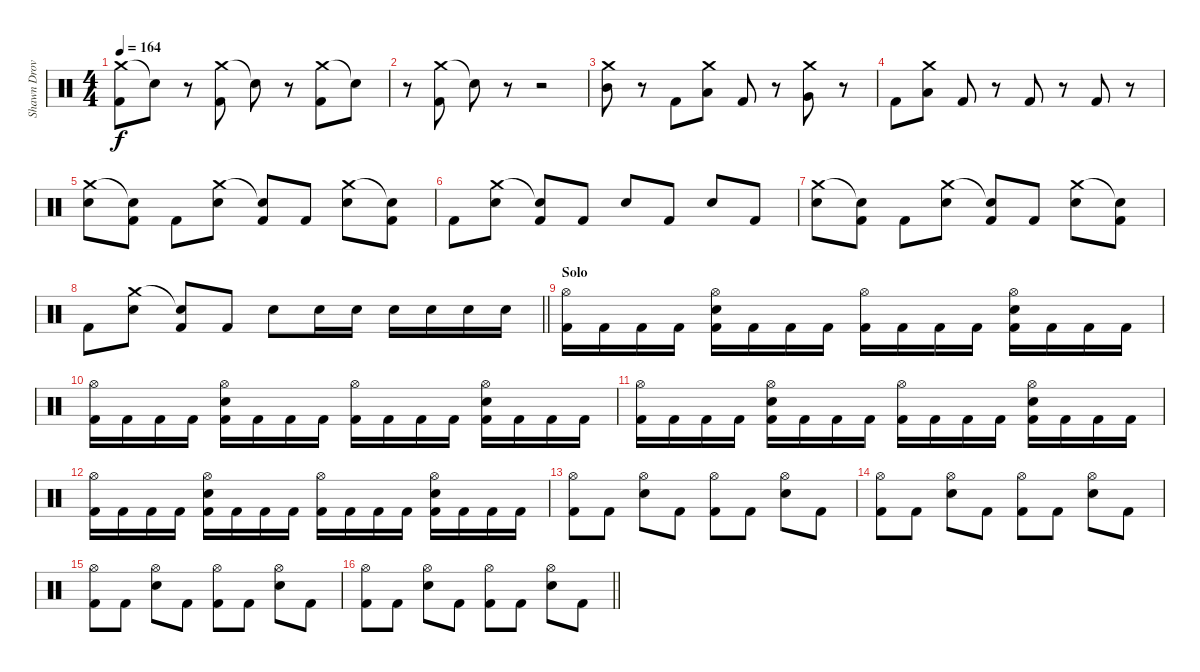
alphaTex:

\track ("Shawn Drover" "Shawn Drov") {instrument percussion}
\staff {score}
\articulation defaults
\ts (4 4)
\tempo 164
\clef neutral
\ks c
("Crash medium (hit)" "Kick (hit) 2").8{dy f} "Snare (hit)"{t}.8 r.8 ("Crash medium (hit)" "Kick (hit) 2").8 "Snare (hit)"{t}.8 r.8 ("Crash medium (hit)" "Kick (hit) 2").8 "Snare (hit)"{t}.8 |
r.8 ("Crash medium (hit)" "Kick (hit) 2").8 "Snare (hit)"{t}.8 r.8 r.2 |
("Crash medium (hit)" "Mid Tom (hit)").8 r.8 "Kick (hit) 2".8 ("Crash medium (hit)" "Low Tom (hit)").8 "Kick (hit) 2".8 r.8 ("Crash medium (hit)" "Very Low Tom (hit)").8 r.8 |
"Kick (hit) 2".8 ("Crash medium (hit)" "Low Floor Tom (hit)").8 "Kick (hit) 2".8 r.8 "Kick (hit) 2".8 r.8 "Kick (hit) 2".8 r.8 |
("Crash medium (hit)" "Snare (hit) 2").8 ("Snare (hit)"{t} "Kick (hit) 2").8 "Kick (hit) 2".8 ("Crash medium (hit)" "Snare (hit) 2").8 ("Snare (hit)"{t} "Kick (hit) 2").8 "Kick (hit) 2".8 ("Crash medium (hit)" "Snare (hit) 2").8 ("Snare (hit)"{t} "Kick (hit) 2").8 |
"Kick (hit) 2".8 ("Crash medium (hit)" "Snare (hit) 2").8 ("Snare (hit)"{t} "Kick (hit) 2").8 "Kick (hit) 2".8 "Snare (hit) 2".8 "Kick (hit) 2".8 "Snare (hit) 2".8 "Kick (hit) 2".8 |
("Crash medium (hit)" "Snare (hit) 2").8 ("Snare (hit)"{t} "Kick (hit) 2").8 "Kick (hit) 2".8 ("Crash medium (hit)" "Snare (hit) 2").8 ("Snare (hit)"{t} "Kick (hit) 2").8 "Kick (hit) 2".8 ("Crash medium (hit)" "Snare (hit) 2").8 ("Snare (hit)"{t} "Kick (hit) 2").8 |
\barLineRight lightlight "Kick (hit) 2".8
("Crash medium (hit)" "Snare (hit) 2").8 ("Snare (hit)"{t} "Kick (hit) 2").8 "Kick (hit) 2".8 "Snare (hit) 2".8 "Snare (hit) 2".16 "Snare (hit) 2".16 "Snare (hit) 2".16 "Snare (hit) 2".16 "Snare (hit) 2".16 "Snare (hit) 2".16 |
\section ("" "Solo")
("Hi-Hat (open)" "Kick (hit) 2").16 "Kick (hit) 2".16 "Kick (hit) 2".16 "Kick (hit) 2".16 ("Hi-Hat (open)" "Snare (hit) 2" "Kick (hit) 2").16 "Kick (hit) 2".16 "Kick (hit) 2".16 "Kick (hit) 2".16 ("Hi-Hat (open)" "Kick (hit) 2").16 "Kick (hit) 2".16 "Kick (hit) 2".16 "Kick (hit) 2".16 ("Hi-Hat (open)" "Snare (hit) 2" "Kick (hit) 2").16 "Kick (hit) 2".16 "Kick (hit) 2".16 "Kick (hit) 2".16 |
("Hi-Hat (open)" "Kick (hit) 2").16 "Kick (hit) 2".16 "Kick (hit) 2".16 "Kick (hit) 2".16 ("Hi-Hat (open)" "Snare (hit) 2" "Kick (hit) 2").16 "Kick (hit) 2".16 "Kick (hit) 2".16 "Kick (hit) 2".16 ("Hi-Hat (open)" "Kick (hit) 2").16 "Kick (hit) 2".16 "Kick (hit) 2".16 "Kick (hit) 2".16 ("Hi-Hat (open)" "Snare (hit) 2" "Kick (hit) 2").16 "Kick (hit) 2".16 "Kick (hit) 2".16 "Kick (hit) 2".16 |
("Hi-Hat (open)" "Kick (hit) 2").16 "Kick (hit) 2".16 "Kick (hit) 2".16 "Kick (hit) 2".16 ("Hi-Hat (open)" "Snare (hit) 2" "Kick (hit) 2").16 "Kick (hit) 2".16 "Kick (hit) 2".16 "Kick (hit) 2".16 ("Hi-Hat (open)" "Kick (hit) 2").16 "Kick (hit) 2".16 "Kick (hit) 2".16 "Kick (hit) 2".16 ("Hi-Hat (open)" "Snare (hit) 2" "Kick (hit) 2").16 "Kick (hit) 2".16 "Kick (hit) 2".16 "Kick (hit) 2".16 |
("Hi-Hat (open)" "Kick (hit) 2").16 "Kick (hit) 2".16 "Kick (hit) 2".16 "Kick (hit) 2".16 ("Hi-Hat (open)" "Snare (hit) 2" "Kick (hit) 2").16 "Kick (hit) 2".16 "Kick (hit) 2".16 "Kick (hit) 2".16 ("Hi-Hat (open)" "Kick (hit) 2").16 "Kick (hit) 2".16 "Kick (hit) 2".16 "Kick (hit) 2".16 ("Hi-Hat (open)" "Snare (hit) 2" "Kick (hit) 2").16 "Kick (hit) 2".16 "Kick (hit) 2".16 "Kick (hit) 2".16 |
("Hi-Hat (open)" "Kick (hit) 2").8 "Kick (hit) 2".8 ("Hi-Hat (open)" "Snare (hit) 2").8 "Kick (hit) 2".8 ("Hi-Hat (open)" "Kick (hit) 2").8 "Kick (hit) 2".8 ("Hi-Hat (open)" "Snare (hit) 2").8 "Kick (hit) 2".8 |
("Hi-Hat (open)" "Kick (hit) 2").8 "Kick (hit) 2".8 ("Hi-Hat (open)" "Snare (hit) 2").8 "Kick (hit) 2".8 ("Hi-Hat (open)" "Kick (hit) 2").8 "Kick (hit) 2".8 ("Hi-Hat (open)" "Snare (hit) 2").8 "Kick (hit) 2".8 |
("Hi-Hat (open)" "Kick (hit) 2").8 "Kick (hit) 2".8 ("Hi-Hat (open)" "Snare (hit) 2").8 "Kick (hit) 2".8 ("Hi-Hat (open)" "Kick (hit) 2").8 "Kick (hit) 2".8 ("Hi-Hat (open)" "Snare (hit) 2").8 "Kick (hit) 2".8 |
\barLineRight lightlight
("Hi-Hat (open)" "Kick (hit) 2").8 "Kick (hit) 2".8 ("Hi-Hat (open)" "Snare (hit) 2").8 "Kick (hit) 2".8 ("Hi-Hat (open)" "Kick (hit) 2").8 "Kick (hit) 2".8 ("Hi-Hat (open)" "Snare (hit) 2").8 "Kick (hit) 2".8
